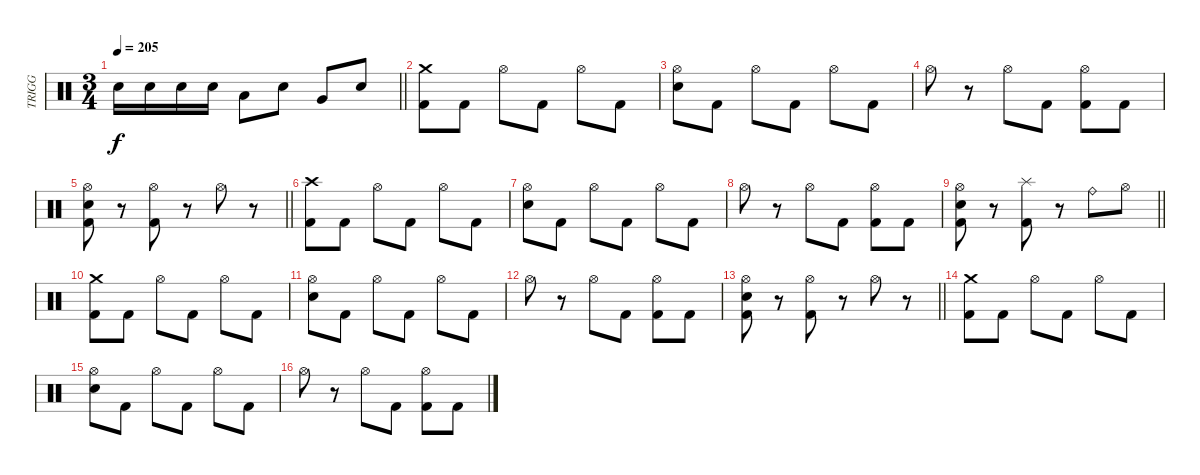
\track ("TRIGG" "TRIGG") {instrument percussion}
\staff {score}
\articulation defaults
\ts (3 4)
\tempo 205
\clef neutral
\barLineRight lightlight
\ks c "Electric Snare (hit)".16{dy f} "Electric Snare (hit)".16 "Electric Snare (hit)".16 "Electric Snare (hit)".16 "Low Tom (hit)".8 "Electric Snare (hit)".8 "Very Low Tom (hit)".8 "Electric Snare (hit)".8
|
("Crash medium (hit)" "Kick (hit) 2").8 "Kick (hit) 2".8 "Hi-Hat (open)".8 "Kick (hit) 2".8 "Hi-Hat (open)".8 "Kick (hit) 2".8 |
("Hi-Hat (open)" "Electric Snare (hit)").8 "Kick (hit) 2".8 "Hi-Hat (open)".8 "Kick (hit) 2".8 "Hi-Hat (open)".8 "Kick (hit) 2".8 |
"Hi-Hat (open)".8 r.8 "Hi-Hat (open)".8 "Kick (hit) 2".8 ("Hi-Hat (open)" "Kick (hit) 2").8 "Kick (hit) 2".8 |
\barLineRight lightlight
("Hi-Hat (open)" "Electric Snare (hit)" "Kick (hit) 2").8 r.8 ("Hi-Hat (open)" "Kick (hit) 2").8 r.8 "Hi-Hat (open)".8 r.8 |
("Crash high (hit)" "Kick (hit) 2").8 "Kick (hit) 2".8 "Hi-Hat (open)".8 "Kick (hit) 2".8 "Hi-Hat (open)".8 "Kick (hit) 2".8 |
("Hi-Hat (open)" "Electric Snare (hit)").8 "Kick (hit) 2".8 "Hi-Hat (open)".8 "Kick (hit) 2".8 "Hi-Hat (open)".8 "Kick (hit) 2".8 |
"Hi-Hat (open)".8 r.8 "Hi-Hat (open)".8 "Kick (hit) 2".8 ("Hi-Hat (open)" "Kick (hit) 2").8 "Kick (hit) 2".8 |
\barLineRight lightlight
("Hi-Hat (open)" "Electric Snare (hit)" "Kick (hit) 2").8 r.8 ("Splash (hit)" "Kick (hit) 2").8 r.8 "Ride (bell)".8 "Hi-Hat (open)".8 |
("Crash medium (hit)" "Kick (hit) 2").8 "Kick (hit) 2".8 "Hi-Hat (open)".8 "Kick (hit) 2".8 "Hi-Hat (open)".8 "Kick (hit) 2".8 |
("Hi-Hat (open)" "Electric Snare (hit)").8 "Kick (hit) 2".8 "Hi-Hat (open)".8 "Kick (hit) 2".8 "Hi-Hat (open)".8 "Kick (hit) 2".8 |
"Hi-Hat (open)".8 r.8 "Hi-Hat (open)".8 "Kick (hit) 2".8 ("Hi-Hat (open)" "Kick (hit) 2").8 "Kick (hit) 2".8 |
\barLineRight lightlight
("Hi-Hat (open)" "Electric Snare (hit)" "Kick (hit) 2").8 r.8 ("Hi-Hat (open)" "Kick (hit) 2").8 r.8 "Hi-Hat (open)".8 r.8 |
("Crash medium (hit)" "Kick (hit) 2").8 "Kick (hit) 2".8 "Hi-Hat (open)".8 "Kick (hit) 2".8 "Hi-Hat (open)".8 "Kick (hit) 2".8 |
("Hi-Hat (open)" "Electric Snare (hit)").8 "Kick (hit) 2".8 "Hi-Hat (open)".8 "Kick (hit) 2".8 "Hi-Hat (open)".8 "Kick (hit) 2".8 |
"Hi-Hat (open)".8 r.8 "Hi-Hat (open)".8 "Kick (hit) 2".8 ("Hi-Hat (open)" "Kick (hit) 2").8 "Kick (hit) 2".8
